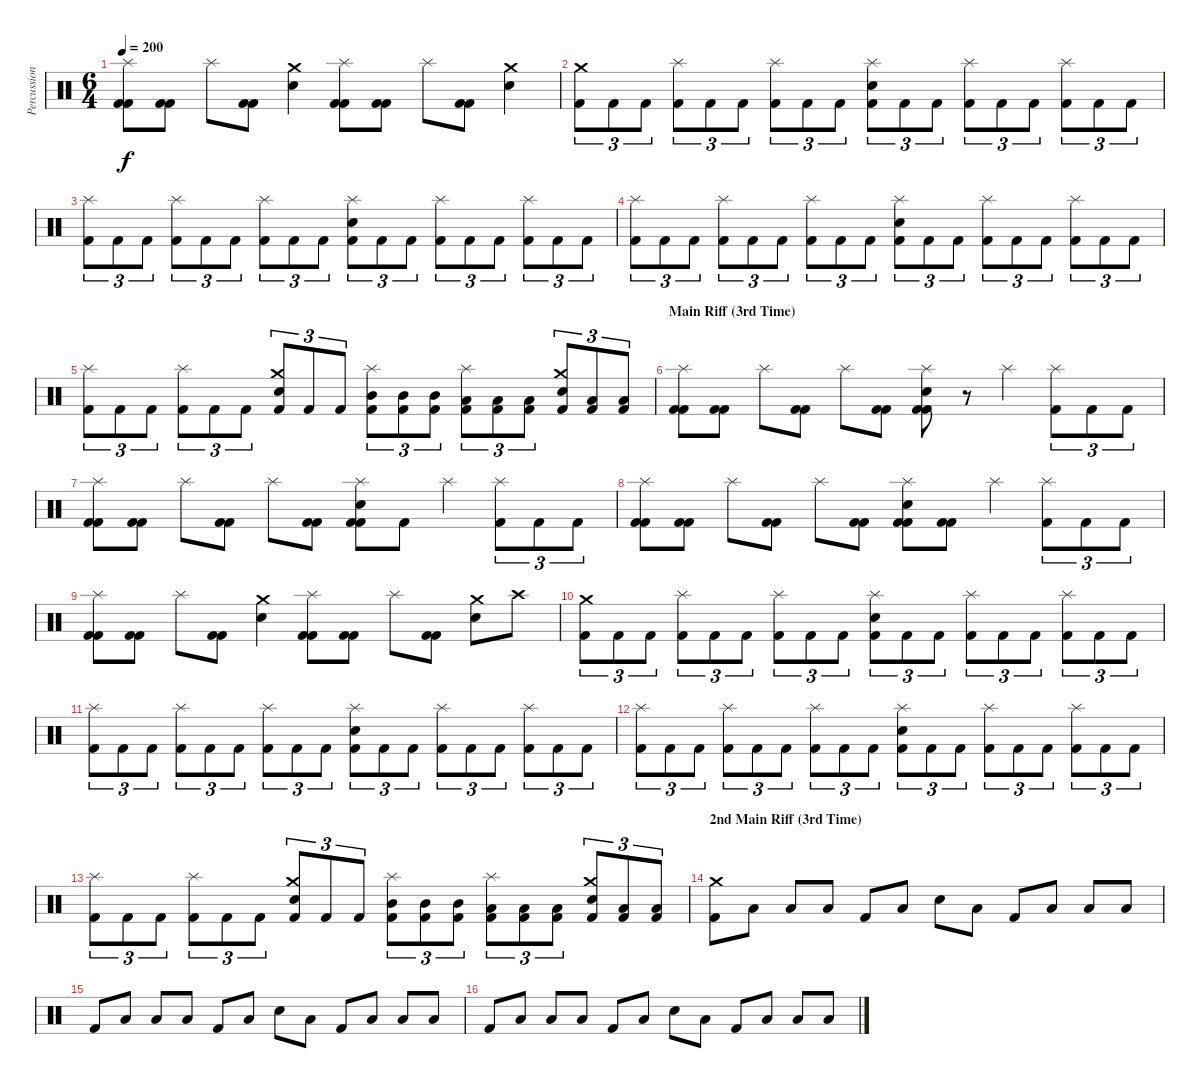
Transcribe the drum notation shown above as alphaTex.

\track ("Percussion" "Percussion") {instrument percussion}
\staff {score}
\articulation defaults
\ts (6 4)
\tempo 200
\clef neutral
\ks c
("Splash (hit)" "Kick (hit) 2" "Kick (hit) 2").8{dy f} ("Kick (hit) 2" "Kick (hit) 2").8 "Splash (hit)".8 ("Kick (hit) 2" "Kick (hit) 2").8 ("Crash medium (hit)" "Electric Snare (hit)").4 ("Splash (hit)" "Kick (hit) 2" "Kick (hit) 2").8 ("Kick (hit) 2" "Kick (hit) 2").8 "Splash (hit)".8 ("Kick (hit) 2" "Kick (hit) 2").8 ("Crash medium (hit)" "Electric Snare (hit)").4 |
("Crash medium (hit)" "Kick (hit) 2").8{tu (3 2)} "Kick (hit) 2".8{tu (3 2)} "Kick (hit) 2".8{tu (3 2)} ("Splash (hit)" "Kick (hit) 2").8{tu (3 2)} "Kick (hit) 2".8{tu (3 2)} "Kick (hit) 2".8{tu (3 2)} ("Splash (hit)" "Kick (hit) 2").8{tu (3 2)} "Kick (hit) 2".8{tu (3 2)} "Kick (hit) 2".8{tu (3 2)} ("Splash (hit)" "Electric Snare (hit)" "Kick (hit) 2").8{tu (3 2)} "Kick (hit) 2".8{tu (3 2)} "Kick (hit) 2".8{tu (3 2)} ("Splash (hit)" "Kick (hit) 2").8{tu (3 2)} "Kick (hit) 2".8{tu (3 2)} "Kick (hit) 2".8{tu (3 2)} ("Splash (hit)" "Kick (hit) 2").8{tu (3 2)} "Kick (hit) 2".8{tu (3 2)} "Kick (hit) 2".8{tu (3 2)} |
("Splash (hit)" "Kick (hit) 2").8{tu (3 2)} "Kick (hit) 2".8{tu (3 2)} "Kick (hit) 2".8{tu (3 2)} ("Splash (hit)" "Kick (hit) 2").8{tu (3 2)} "Kick (hit) 2".8{tu (3 2)} "Kick (hit) 2".8{tu (3 2)} ("Splash (hit)" "Kick (hit) 2").8{tu (3 2)} "Kick (hit) 2".8{tu (3 2)} "Kick (hit) 2".8{tu (3 2)} ("Splash (hit)" "Electric Snare (hit)" "Kick (hit) 2").8{tu (3 2)} "Kick (hit) 2".8{tu (3 2)} "Kick (hit) 2".8{tu (3 2)} ("Splash (hit)" "Kick (hit) 2").8{tu (3 2)} "Kick (hit) 2".8{tu (3 2)} "Kick (hit) 2".8{tu (3 2)} ("Splash (hit)" "Kick (hit) 2").8{tu (3 2)} "Kick (hit) 2".8{tu (3 2)} "Kick (hit) 2".8{tu (3 2)} |
("Splash (hit)" "Kick (hit) 2").8{tu (3 2)} "Kick (hit) 2".8{tu (3 2)} "Kick (hit) 2".8{tu (3 2)} ("Splash (hit)" "Kick (hit) 2").8{tu (3 2)} "Kick (hit) 2".8{tu (3 2)} "Kick (hit) 2".8{tu (3 2)} ("Splash (hit)" "Kick (hit) 2").8{tu (3 2)} "Kick (hit) 2".8{tu (3 2)} "Kick (hit) 2".8{tu (3 2)} ("Splash (hit)" "Electric Snare (hit)" "Kick (hit) 2").8{tu (3 2)} "Kick (hit) 2".8{tu (3 2)} "Kick (hit) 2".8{tu (3 2)} ("Splash (hit)" "Kick (hit) 2").8{tu (3 2)} "Kick (hit) 2".8{tu (3 2)} "Kick (hit) 2".8{tu (3 2)} ("Splash (hit)" "Kick (hit) 2").8{tu (3 2)} "Kick (hit) 2".8{tu (3 2)} "Kick (hit) 2".8{tu (3 2)} |
("Splash (hit)" "Kick (hit) 2").8{tu (3 2)} "Kick (hit) 2".8{tu (3 2)} "Kick (hit) 2".8{tu (3 2)} ("Splash (hit)" "Kick (hit) 2").8{tu (3 2)} "Kick (hit) 2".8{tu (3 2)} "Kick (hit) 2".8{tu (3 2)} ("Crash medium (hit)" "Electric Snare (hit)" "Kick (hit) 2").8{tu (3 2)} "Kick (hit) 2".8{tu (3 2)} "Kick (hit) 2".8{tu (3 2)} ("Splash (hit)" "Mid Tom (hit)" "Kick (hit) 2").8{tu (3 2)} ("Mid Tom (hit)" "Kick (hit) 2").8{tu (3 2)} ("Mid Tom (hit)" "Kick (hit) 2").8{tu (3 2)} ("Splash (hit)" "Low Tom (hit)" "Kick (hit) 2").8{tu (3 2)} ("Low Tom (hit)" "Kick (hit) 2").8{tu (3 2)} ("Low Tom (hit)" "Kick (hit) 2").8{tu (3 2)} ("Crash medium (hit)" "Electric Snare (hit)" "Kick (hit) 2").8{tu (3 2)} ("Low Floor Tom (hit)" "Kick (hit) 2").8{tu (3 2)} ("Low Floor Tom (hit)" "Kick (hit) 2").8{tu (3 2)} |
\section ("" "Main Riff (3rd Time)")
("Splash (hit)" "Kick (hit) 2" "Kick (hit) 2").8 ("Kick (hit) 2" "Kick (hit) 2").8 "Splash (hit)".8 ("Kick (hit) 2" "Kick (hit) 2").8 "Splash (hit)".8 ("Kick (hit) 2" "Kick (hit) 2").8 ("Splash (hit)" "Electric Snare (hit)" "Kick (hit) 2" "Kick (hit) 2").8 r.8 "Splash (hit)".4 ("Splash (hit)" "Kick (hit) 2").8{tu (3 2)} "Kick (hit) 2".8{tu (3 2)} "Kick (hit) 2".8{tu (3 2)} |
("Splash (hit)" "Kick (hit) 2" "Kick (hit) 2").8 ("Kick (hit) 2" "Kick (hit) 2").8 "Splash (hit)".8 ("Kick (hit) 2" "Kick (hit) 2").8 "Splash (hit)".8 ("Kick (hit) 2" "Kick (hit) 2").8 ("Splash (hit)" "Electric Snare (hit)" "Kick (hit) 2" "Kick (hit) 2").8 "Kick (hit) 2".8 "Splash (hit)".4 ("Splash (hit)" "Kick (hit) 2").8{tu (3 2)} "Kick (hit) 2".8{tu (3 2)} "Kick (hit) 2".8{tu (3 2)} |
("Splash (hit)" "Kick (hit) 2" "Kick (hit) 2").8 ("Kick (hit) 2" "Kick (hit) 2").8 "Splash (hit)".8 ("Kick (hit) 2" "Kick (hit) 2").8 "Splash (hit)".8 ("Kick (hit) 2" "Kick (hit) 2").8 ("Splash (hit)" "Electric Snare (hit)" "Kick (hit) 2" "Kick (hit) 2").8 ("Kick (hit) 2" "Kick (hit) 2").8 "Splash (hit)".4 ("Splash (hit)" "Kick (hit) 2").8{tu (3 2)} "Kick (hit) 2".8{tu (3 2)} "Kick (hit) 2".8{tu (3 2)} |
("Splash (hit)" "Kick (hit) 2" "Kick (hit) 2").8 ("Kick (hit) 2" "Kick (hit) 2").8 "Splash (hit)".8 ("Kick (hit) 2" "Kick (hit) 2").8 ("Crash medium (hit)" "Electric Snare (hit)").4 ("Splash (hit)" "Kick (hit) 2" "Kick (hit) 2").8 ("Kick (hit) 2" "Kick (hit) 2").8 "Splash (hit)".8 ("Kick (hit) 2" "Kick (hit) 2").8 ("Crash medium (hit)" "Electric Snare (hit)").8 "Crash high (hit)".8 |
("Crash medium (hit)" "Kick (hit) 2").8{tu (3 2)} "Kick (hit) 2".8{tu (3 2)} "Kick (hit) 2".8{tu (3 2)} ("Splash (hit)" "Kick (hit) 2").8{tu (3 2)} "Kick (hit) 2".8{tu (3 2)} "Kick (hit) 2".8{tu (3 2)} ("Splash (hit)" "Kick (hit) 2").8{tu (3 2)} "Kick (hit) 2".8{tu (3 2)} "Kick (hit) 2".8{tu (3 2)} ("Splash (hit)" "Electric Snare (hit)" "Kick (hit) 2").8{tu (3 2)} "Kick (hit) 2".8{tu (3 2)} "Kick (hit) 2".8{tu (3 2)} ("Splash (hit)" "Kick (hit) 2").8{tu (3 2)} "Kick (hit) 2".8{tu (3 2)} "Kick (hit) 2".8{tu (3 2)} ("Splash (hit)" "Kick (hit) 2").8{tu (3 2)} "Kick (hit) 2".8{tu (3 2)} "Kick (hit) 2".8{tu (3 2)} |
("Splash (hit)" "Kick (hit) 2").8{tu (3 2)} "Kick (hit) 2".8{tu (3 2)} "Kick (hit) 2".8{tu (3 2)} ("Splash (hit)" "Kick (hit) 2").8{tu (3 2)} "Kick (hit) 2".8{tu (3 2)} "Kick (hit) 2".8{tu (3 2)} ("Splash (hit)" "Kick (hit) 2").8{tu (3 2)} "Kick (hit) 2".8{tu (3 2)} "Kick (hit) 2".8{tu (3 2)} ("Splash (hit)" "Electric Snare (hit)" "Kick (hit) 2").8{tu (3 2)} "Kick (hit) 2".8{tu (3 2)} "Kick (hit) 2".8{tu (3 2)} ("Splash (hit)" "Kick (hit) 2").8{tu (3 2)} "Kick (hit) 2".8{tu (3 2)} "Kick (hit) 2".8{tu (3 2)} ("Splash (hit)" "Kick (hit) 2").8{tu (3 2)} "Kick (hit) 2".8{tu (3 2)} "Kick (hit) 2".8{tu (3 2)} |
("Splash (hit)" "Kick (hit) 2").8{tu (3 2)} "Kick (hit) 2".8{tu (3 2)} "Kick (hit) 2".8{tu (3 2)} ("Splash (hit)" "Kick (hit) 2").8{tu (3 2)} "Kick (hit) 2".8{tu (3 2)} "Kick (hit) 2".8{tu (3 2)} ("Splash (hit)" "Kick (hit) 2").8{tu (3 2)} "Kick (hit) 2".8{tu (3 2)} "Kick (hit) 2".8{tu (3 2)} ("Splash (hit)" "Electric Snare (hit)" "Kick (hit) 2").8{tu (3 2)} "Kick (hit) 2".8{tu (3 2)} "Kick (hit) 2".8{tu (3 2)} ("Splash (hit)" "Kick (hit) 2").8{tu (3 2)} "Kick (hit) 2".8{tu (3 2)} "Kick (hit) 2".8{tu (3 2)} ("Splash (hit)" "Kick (hit) 2").8{tu (3 2)} "Kick (hit) 2".8{tu (3 2)} "Kick (hit) 2".8{tu (3 2)} |
("Splash (hit)" "Kick (hit) 2").8{tu (3 2)} "Kick (hit) 2".8{tu (3 2)} "Kick (hit) 2".8{tu (3 2)} ("Splash (hit)" "Kick (hit) 2").8{tu (3 2)} "Kick (hit) 2".8{tu (3 2)} "Kick (hit) 2".8{tu (3 2)} ("Crash medium (hit)" "Electric Snare (hit)" "Kick (hit) 2").8{tu (3 2)} "Kick (hit) 2".8{tu (3 2)} "Kick (hit) 2".8{tu (3 2)} ("Splash (hit)" "Mid Tom (hit)" "Kick (hit) 2").8{tu (3 2)} ("Mid Tom (hit)" "Kick (hit) 2").8{tu (3 2)} ("Mid Tom (hit)" "Kick (hit) 2").8{tu (3 2)} ("Splash (hit)" "Low Tom (hit)" "Kick (hit) 2").8{tu (3 2)} ("Low Tom (hit)" "Kick (hit) 2").8{tu (3 2)} ("Low Tom (hit)" "Kick (hit) 2").8{tu (3 2)} ("Crash medium (hit)" "Electric Snare (hit)" "Kick (hit) 2").8{tu (3 2)} ("Low Floor Tom (hit)" "Kick (hit) 2").8{tu (3 2)} ("Low Floor Tom (hit)" "Kick (hit) 2").8{tu (3 2)} |
\section ("" "2nd Main Riff (3rd Time)")
("Crash medium (hit)" "Kick (hit) 2").8 "Low Tom (hit)".8 "Low Floor Tom (hit)".8 "Low Floor Tom (hit)".8 "Kick (hit) 2".8 "Low Tom (hit)".8 "Electric Snare (hit)".8 "Low Floor Tom (hit)".8 "Kick (hit) 2".8 "Low Tom (hit)".8 "Low Floor Tom (hit)".8 "Low Floor Tom (hit)".8 |
"Kick (hit) 2".8 "Low Tom (hit)".8 "Low Floor Tom (hit)".8 "Low Floor Tom (hit)".8 "Kick (hit) 2".8 "Low Tom (hit)".8 "Electric Snare (hit)".8 "Low Floor Tom (hit)".8 "Kick (hit) 2".8 "Low Tom (hit)".8 "Low Floor Tom (hit)".8 "Low Floor Tom (hit)".8 |
"Kick (hit) 2".8 "Low Tom (hit)".8 "Low Floor Tom (hit)".8 "Low Floor Tom (hit)".8 "Kick (hit) 2".8 "Low Tom (hit)".8 "Electric Snare (hit)".8 "Low Floor Tom (hit)".8 "Kick (hit) 2".8 "Low Tom (hit)".8 "Low Floor Tom (hit)".8 "Low Floor Tom (hit)".8
